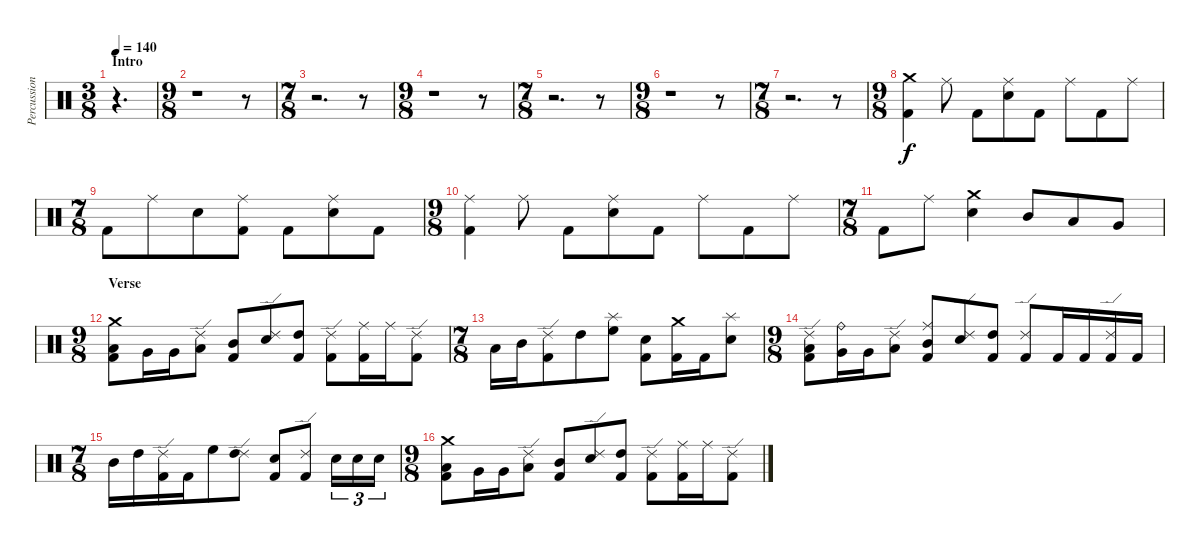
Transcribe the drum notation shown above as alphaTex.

\track ("Percussion" "Percussion") {instrument percussion}
\staff {score}
\articulation defaults
\ts (3 8)
\section ("" "Intro")
\tempo 140
\clef neutral
\ks c
r.4{d dy f} |
\ts (9 8)
r.1 r.8 |
\ts (7 8)
r.2{d} r.8 |
\ts (9 8)
r.1 r.8 |
\ts (7 8)
r.2{d} r.8 |
\ts (9 8)
r.1 r.8 |
\ts (7 8)
r.2{d} r.8 |
\ts (9 8)
("Crash medium (hit)" "Kick (hit) 2").4 "Ride (middle)".8 "Kick (hit) 2".8 ("Ride (middle)" "Electric Snare (hit)").8 "Kick (hit) 2".8 "Ride (middle)".8 "Kick (hit) 2".8 "Ride (middle)".8 |
\ts (7 8)
"Kick (hit) 2".8 "Ride (middle)".8 "Electric Snare (hit)".8 ("Ride (middle)" "Kick (hit) 2").8 "Kick (hit) 2".8 ("Ride (middle)" "Electric Snare (hit)").8 "Kick (hit) 2".8 |
\ts (9 8)
("Ride (middle)" "Kick (hit) 2").4 "Ride (middle)".8 "Kick (hit) 2".8 ("Ride (middle)" "Electric Snare (hit)").8 "Kick (hit) 2".8 "Ride (middle)".8 "Kick (hit) 2".8 "Ride (middle)".8 |
\ts (7 8)
"Kick (hit) 2".8 "Ride (middle)".8 ("Crash medium (hit)" "Electric Snare (hit)").4 "Mid Tom (hit)".8 "Low Tom (hit)".8 "Very Low Tom (hit)".8 |
\ts (9 8)
\section ("" "Verse")
("Crash medium (hit)" "Low Floor Tom (hit)" "Kick (hit) 2").8 "Very Low Tom (hit)".16 "Very Low Tom (hit)".16 ("Ride (edge) 2" "Low Tom (hit)").8 ("Mid Tom (hit)" "Kick (hit) 2").8 ("Ride (edge) 2" "Electric Snare (hit)").8 ("High Tom (hit)" "Kick (hit) 2").8 ("Ride (edge) 2" "Kick (hit) 2").8 ("Ride (middle)" "Kick (hit) 2").16 "Ride (middle)".16 ("Ride (edge) 2" "Kick (hit) 2").8 |
\ts (7 8)
"Low Tom (hit)".16 "Mid Tom (hit)".16 ("Ride (edge) 2" "Kick (hit) 2").8 "High Tom (hit)".8 ("Splash (hit)" "High Floor Tom (hit)").8 ("Electric Snare (hit)" "Kick (hit) 2").8 ("Crash medium (hit)" "Kick (hit) 2").16 "Kick (hit) 2".16 ("Splash (hit)" "Electric Snare (hit)").8 |
\ts (9 8)
("Ride (edge) 2" "Low Floor Tom (hit)" "Kick (hit) 2").8 ("Ride (bell)" "Very Low Tom (hit)").16 "Very Low Tom (hit)".16 ("Ride (edge) 2" "Low Tom (hit)").8 ("Ride (middle)" "Mid Tom (hit)" "Kick (hit) 2").8 ("Ride (edge) 2" "Electric Snare (hit)").8 ("High Tom (hit)" "Kick (hit) 2").8 ("Ride (edge) 2" "Kick (hit) 2").8 "Kick (hit) 2".16 "Kick (hit) 2".16 ("Ride (edge) 2" "Kick (hit) 2").16 "Kick (hit) 2".16 |
\ts (7 8)
"Mid Tom (hit)".16 "High Tom (hit)".16 ("Ride (edge) 2" "Kick (hit) 2").16 "Kick (hit) 2".16 "High Floor Tom (hit)".8 ("Ride (edge) 2" "High Tom (hit)").8 ("Electric Snare (hit)" "Kick (hit) 2").8 ("Ride (edge) 2" "Kick (hit) 2").8 "Electric Snare (hit)".16{tu (3 2)} "Electric Snare (hit)".16{tu (3 2)} "Electric Snare (hit)".16{tu (3 2)} |
\ts (9 8)
("Crash medium (hit)" "Low Floor Tom (hit)" "Kick (hit) 2").8 "Very Low Tom (hit)".16 "Very Low Tom (hit)".16 ("Ride (edge) 2" "Low Tom (hit)").8 ("Mid Tom (hit)" "Kick (hit) 2").8 ("Ride (edge) 2" "Electric Snare (hit)").8 ("High Tom (hit)" "Kick (hit) 2").8 ("Ride (edge) 2" "Kick (hit) 2").8 ("Ride (middle)" "Kick (hit) 2").16 "Ride (middle)".16 ("Ride (edge) 2" "Kick (hit) 2").8
